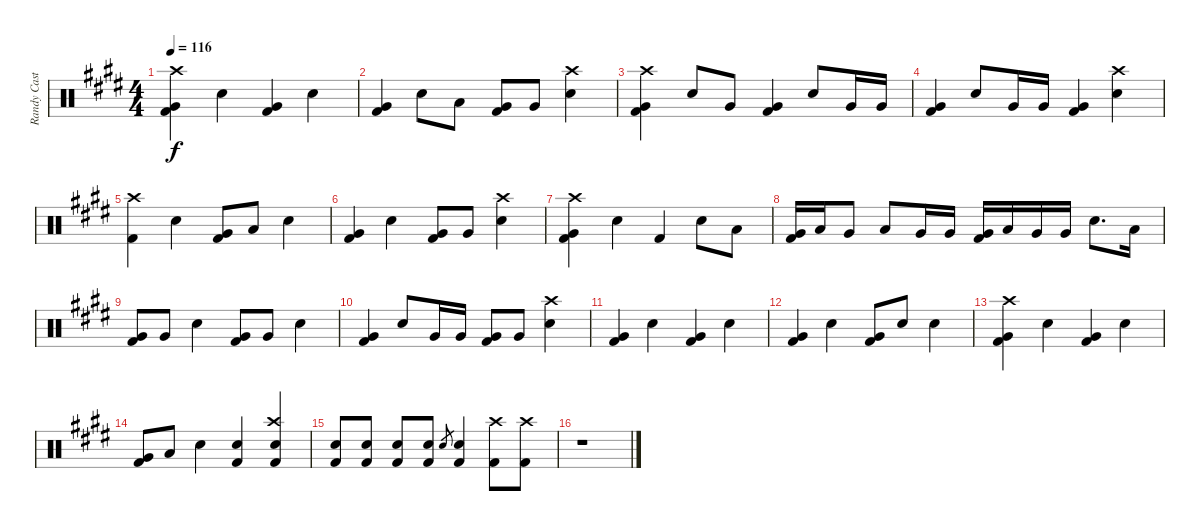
\track ("Randy Castillo" "Randy Cast") {instrument percussion}
\staff {score}
\articulation defaults
\ts (4 4)
\tempo 116
\clef neutral
\ks e
("Kick (hit) 2" "Very Low Tom (hit)" "Crash high (hit)").4{dy f} "Snare (hit) 2".4 ("Kick (hit) 2" "Very Low Tom (hit)").4 "Snare (hit) 2".4 |
("Kick (hit) 2" "Very Low Tom (hit)").4 "Snare (hit) 2".8 "Low Tom (hit)".8 ("Kick (hit) 2" "Very Low Tom (hit)").8 "Very Low Tom (hit)".8 ("Snare (hit) 2" "Crash high (hit)").4 |
("Kick (hit) 2" "Very Low Tom (hit)" "Crash high (hit)").4 "Snare (hit) 2".8 "Very Low Tom (hit)".8 ("Kick (hit) 2" "Very Low Tom (hit)").4 "Snare (hit) 2".8 "Very Low Tom (hit)".16 "Very Low Tom (hit)".16 |
("Kick (hit) 2" "Very Low Tom (hit)").4 "Snare (hit) 2".8 "Very Low Tom (hit)".16 "Very Low Tom (hit)".16 ("Kick (hit) 2" "Very Low Tom (hit)").4 ("Snare (hit) 2" "Crash high (hit)").4 |
("Kick (hit) 2" "Crash high (hit)").4 "Snare (hit) 2".4 ("Kick (hit) 2" "Very Low Tom (hit)").8 "Low Tom (hit)".8 "Snare (hit) 2".4 |
("Kick (hit) 2" "Very Low Tom (hit)").4 "Snare (hit) 2".4 ("Kick (hit) 2" "Very Low Tom (hit)").8 "Very Low Tom (hit)".8 ("Snare (hit) 2" "Crash high (hit)").4 |
("Kick (hit) 2" "Very Low Tom (hit)" "Crash high (hit)").4 "Snare (hit) 2".4 "Kick (hit) 2".4 "Snare (hit) 2".8 "Low Tom (hit)".8 |
("Kick (hit) 2" "Very Low Tom (hit)").16 "Low Tom (hit)".16 "Very Low Tom (hit)".8 "Low Tom (hit)".8 "Very Low Tom (hit)".16 "Very Low Tom (hit)".16 ("Kick (hit) 2" "Very Low Tom (hit)").16 "Low Tom (hit)".16 "Very Low Tom (hit)".16 "Very Low Tom (hit)".16 "Snare (hit) 2".8{d} "Low Tom (hit)".16 |
("Kick (hit) 2" "Very Low Tom (hit)").8 "Very Low Tom (hit)".8 "Snare (hit) 2".4 ("Kick (hit) 2" "Very Low Tom (hit)").8 "Very Low Tom (hit)".8 "Snare (hit) 2".4 |
("Kick (hit) 2" "Very Low Tom (hit)").4 "Snare (hit) 2".8 "Very Low Tom (hit)".16 "Very Low Tom (hit)".16 ("Kick (hit) 2" "Very Low Tom (hit)").8 "Very Low Tom (hit)".8 ("Snare (hit) 2" "Crash high (hit)").4 |
("Kick (hit) 2" "Very Low Tom (hit)").4 "Snare (hit) 2".4 ("Kick (hit) 2" "Very Low Tom (hit)").4 "Snare (hit) 2".4 |
("Kick (hit) 2" "Very Low Tom (hit)").4 "Snare (hit) 2".4 ("Kick (hit) 2" "Very Low Tom (hit)").8 "Snare (hit) 2".8 "Snare (hit) 2".4 |
("Kick (hit) 2" "Very Low Tom (hit)" "Crash high (hit)").4 "Snare (hit) 2".4 ("Kick (hit) 2" "Very Low Tom (hit)").4 "Snare (hit) 2".4 |
("Kick (hit) 2" "Very Low Tom (hit)").8 "Low Tom (hit)".8 "Snare (hit) 2".4 ("Snare (hit) 2" "Kick (hit) 2").4 ("Snare (hit) 2" "Kick (hit) 2" "Crash high (hit)").4 |
("Snare (hit) 2" "Kick (hit) 2").8 ("Snare (hit) 2" "Kick (hit) 2").8 ("Snare (hit) 2" "Kick (hit) 2").8 ("Snare (hit) 2" "Kick (hit) 2").8 "Snare (hit) 2".8{gr} ("Snare (hit) 2" "Kick (hit) 2").4 ("Kick (hit) 2" "Crash high (hit)").8 ("Kick (hit) 2" "Crash high (hit)").8 |
r.1
